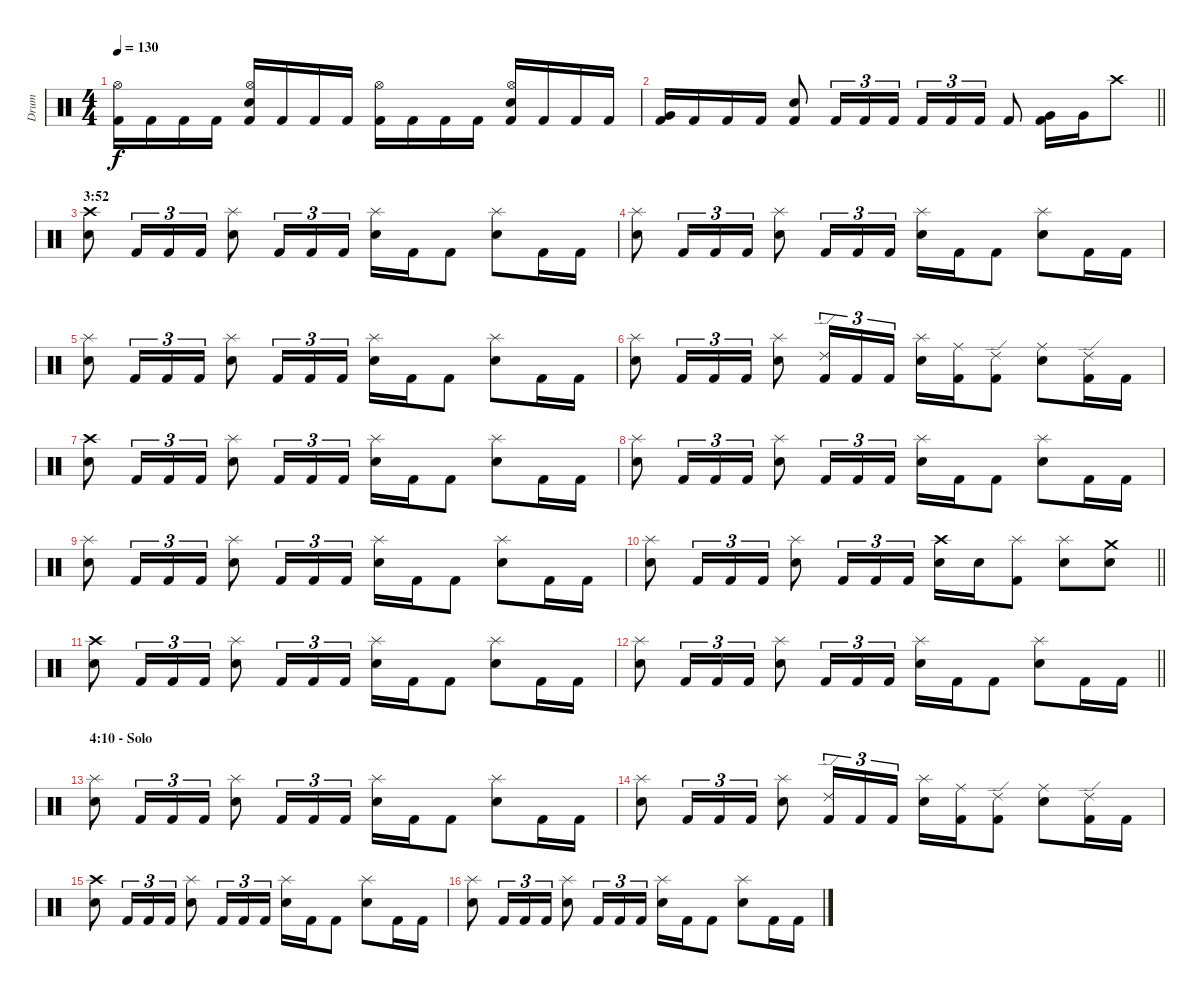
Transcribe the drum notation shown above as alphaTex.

\track ("Drum" "Drum") {instrument percussion}
\staff {score}
\articulation defaults
\ts (4 4)
\tempo 130
\clef neutral
\ks c
("Kick (hit) 2" "Hi-Hat (open)").16{dy f} "Kick (hit) 2".16 "Kick (hit) 2".16 "Kick (hit) 2".16 ("Kick (hit) 2" "Electric Snare (hit)" "Hi-Hat (open)").16 "Kick (hit) 2".16 "Kick (hit) 2".16 "Kick (hit) 2".16 ("Kick (hit) 2" "Hi-Hat (open)").16 "Kick (hit) 2".16 "Kick (hit) 2".16 "Kick (hit) 2".16 ("Kick (hit) 2" "Electric Snare (hit)" "Hi-Hat (open)").16 "Kick (hit) 2".16 "Kick (hit) 2".16 "Kick (hit) 2".16 |
\barLineRight lightlight
("Kick (hit) 2" "Very Low Tom (hit)").16 "Kick (hit) 2".16 "Kick (hit) 2".16 "Kick (hit) 2".16 ("Kick (hit) 2" "Snare (hit) 2").8 "Kick (hit) 2".16{tu (3 2)} "Kick (hit) 2".16{tu (3 2)} "Kick (hit) 2".16{tu (3 2)} "Kick (hit) 2".16{tu (3 2)} "Kick (hit) 2".16{tu (3 2)} "Kick (hit) 2".16{tu (3 2)} "Kick (hit) 2".8 ("Kick (hit) 2" "Very Low Tom (hit)").16 "Very Low Tom (hit)".16 "Crash high (hit)".8 |
\section ("" "3:52")
("Electric Snare (hit)" "Crash high (hit)").8 "Kick (hit) 2".16{tu (3 2)} "Kick (hit) 2".16{tu (3 2)} "Kick (hit) 2".16{tu (3 2)} ("Electric Snare (hit)" "Splash (hit)").8 "Kick (hit) 2".16{tu (3 2)} "Kick (hit) 2".16{tu (3 2)} "Kick (hit) 2".16{tu (3 2)} ("Electric Snare (hit)" "Splash (hit)").16 "Kick (hit) 2".16 "Kick (hit) 2".8 ("Electric Snare (hit)" "Splash (hit)").8 "Kick (hit) 2".16 "Kick (hit) 2".16 |
("Electric Snare (hit)" "Splash (hit)").8 "Kick (hit) 2".16{tu (3 2)} "Kick (hit) 2".16{tu (3 2)} "Kick (hit) 2".16{tu (3 2)} ("Electric Snare (hit)" "Splash (hit)").8 "Kick (hit) 2".16{tu (3 2)} "Kick (hit) 2".16{tu (3 2)} "Kick (hit) 2".16{tu (3 2)} ("Electric Snare (hit)" "Splash (hit)").16 "Kick (hit) 2".16 "Kick (hit) 2".8 ("Electric Snare (hit)" "Splash (hit)").8 "Kick (hit) 2".16 "Kick (hit) 2".16 |
("Electric Snare (hit)" "Splash (hit)").8 "Kick (hit) 2".16{tu (3 2)} "Kick (hit) 2".16{tu (3 2)} "Kick (hit) 2".16{tu (3 2)} ("Electric Snare (hit)" "Splash (hit)").8 "Kick (hit) 2".16{tu (3 2)} "Kick (hit) 2".16{tu (3 2)} "Kick (hit) 2".16{tu (3 2)} ("Electric Snare (hit)" "Splash (hit)").16 "Kick (hit) 2".16 "Kick (hit) 2".8 ("Electric Snare (hit)" "Splash (hit)").8 "Kick (hit) 2".16 "Kick (hit) 2".16 |
("Electric Snare (hit)" "Splash (hit)").8 "Kick (hit) 2".16{tu (3 2)} "Kick (hit) 2".16{tu (3 2)} "Kick (hit) 2".16{tu (3 2)} ("Electric Snare (hit)" "Splash (hit)").8 ("Kick (hit) 2" "Ride (edge) 2").16{tu (3 2)} "Kick (hit) 2".16{tu (3 2)} "Kick (hit) 2".16{tu (3 2)} ("Electric Snare (hit)" "Splash (hit)").16 ("Kick (hit) 2" "Ride (middle)").16 ("Kick (hit) 2" "Ride (edge) 2").8 ("Electric Snare (hit)" "Ride (middle)").8 ("Kick (hit) 2" "Ride (edge) 2").16 "Kick (hit) 2".16 |
("Electric Snare (hit)" "Crash high (hit)").8 "Kick (hit) 2".16{tu (3 2)} "Kick (hit) 2".16{tu (3 2)} "Kick (hit) 2".16{tu (3 2)} ("Electric Snare (hit)" "Splash (hit)").8 "Kick (hit) 2".16{tu (3 2)} "Kick (hit) 2".16{tu (3 2)} "Kick (hit) 2".16{tu (3 2)} ("Electric Snare (hit)" "Splash (hit)").16 "Kick (hit) 2".16 "Kick (hit) 2".8 ("Electric Snare (hit)" "Splash (hit)").8 "Kick (hit) 2".16 "Kick (hit) 2".16 |
("Electric Snare (hit)" "Splash (hit)").8 "Kick (hit) 2".16{tu (3 2)} "Kick (hit) 2".16{tu (3 2)} "Kick (hit) 2".16{tu (3 2)} ("Electric Snare (hit)" "Splash (hit)").8 "Kick (hit) 2".16{tu (3 2)} "Kick (hit) 2".16{tu (3 2)} "Kick (hit) 2".16{tu (3 2)} ("Electric Snare (hit)" "Splash (hit)").16 "Kick (hit) 2".16 "Kick (hit) 2".8 ("Electric Snare (hit)" "Splash (hit)").8 "Kick (hit) 2".16 "Kick (hit) 2".16 |
("Electric Snare (hit)" "Splash (hit)").8 "Kick (hit) 2".16{tu (3 2)} "Kick (hit) 2".16{tu (3 2)} "Kick (hit) 2".16{tu (3 2)} ("Electric Snare (hit)" "Splash (hit)").8 "Kick (hit) 2".16{tu (3 2)} "Kick (hit) 2".16{tu (3 2)} "Kick (hit) 2".16{tu (3 2)} ("Electric Snare (hit)" "Splash (hit)").16 "Kick (hit) 2".16 "Kick (hit) 2".8 ("Electric Snare (hit)" "Splash (hit)").8 "Kick (hit) 2".16 "Kick (hit) 2".16 |
\barLineRight lightlight
("Electric Snare (hit)" "Splash (hit)").8 "Kick (hit) 2".16{tu (3 2)} "Kick (hit) 2".16{tu (3 2)} "Kick (hit) 2".16{tu (3 2)} ("Electric Snare (hit)" "Splash (hit)").8 "Kick (hit) 2".16{tu (3 2)} "Kick (hit) 2".16{tu (3 2)} "Kick (hit) 2".16{tu (3 2)} ("Electric Snare (hit)" "Crash high (hit)").16 "Electric Snare (hit)".16 ("Kick (hit) 2" "Splash (hit)").8 ("Electric Snare (hit)" "Splash (hit)").8 ("Electric Snare (hit)" "Crash medium (hit)").8 |
("Electric Snare (hit)" "Crash high (hit)").8 "Kick (hit) 2".16{tu (3 2)} "Kick (hit) 2".16{tu (3 2)} "Kick (hit) 2".16{tu (3 2)} ("Electric Snare (hit)" "Splash (hit)").8 "Kick (hit) 2".16{tu (3 2)} "Kick (hit) 2".16{tu (3 2)} "Kick (hit) 2".16{tu (3 2)} ("Electric Snare (hit)" "Splash (hit)").16 "Kick (hit) 2".16 "Kick (hit) 2".8 ("Electric Snare (hit)" "Splash (hit)").8 "Kick (hit) 2".16 "Kick (hit) 2".16 |
\barLineRight lightlight
("Electric Snare (hit)" "Splash (hit)").8 "Kick (hit) 2".16{tu (3 2)} "Kick (hit) 2".16{tu (3 2)} "Kick (hit) 2".16{tu (3 2)} ("Electric Snare (hit)" "Splash (hit)").8 "Kick (hit) 2".16{tu (3 2)} "Kick (hit) 2".16{tu (3 2)} "Kick (hit) 2".16{tu (3 2)} ("Electric Snare (hit)" "Splash (hit)").16 "Kick (hit) 2".16 "Kick (hit) 2".8 ("Electric Snare (hit)" "Splash (hit)").8 "Kick (hit) 2".16 "Kick (hit) 2".16 |
\section ("" "4:10 - Solo")
("Electric Snare (hit)" "Splash (hit)").8 "Kick (hit) 2".16{tu (3 2)} "Kick (hit) 2".16{tu (3 2)} "Kick (hit) 2".16{tu (3 2)} ("Electric Snare (hit)" "Splash (hit)").8 "Kick (hit) 2".16{tu (3 2)} "Kick (hit) 2".16{tu (3 2)} "Kick (hit) 2".16{tu (3 2)} ("Electric Snare (hit)" "Splash (hit)").16 "Kick (hit) 2".16 "Kick (hit) 2".8 ("Electric Snare (hit)" "Splash (hit)").8 "Kick (hit) 2".16 "Kick (hit) 2".16 |
("Electric Snare (hit)" "Splash (hit)").8 "Kick (hit) 2".16{tu (3 2)} "Kick (hit) 2".16{tu (3 2)} "Kick (hit) 2".16{tu (3 2)} ("Electric Snare (hit)" "Splash (hit)").8 ("Kick (hit) 2" "Ride (edge) 2").16{tu (3 2)} "Kick (hit) 2".16{tu (3 2)} "Kick (hit) 2".16{tu (3 2)} ("Electric Snare (hit)" "Splash (hit)").16 ("Kick (hit) 2" "Ride (middle)").16 ("Kick (hit) 2" "Ride (edge) 2").8 ("Electric Snare (hit)" "Ride (middle)").8 ("Kick (hit) 2" "Ride (edge) 2").16 "Kick (hit) 2".16 |
("Electric Snare (hit)" "Crash high (hit)").8 "Kick (hit) 2".16{tu (3 2)} "Kick (hit) 2".16{tu (3 2)} "Kick (hit) 2".16{tu (3 2)} ("Electric Snare (hit)" "Splash (hit)").8 "Kick (hit) 2".16{tu (3 2)} "Kick (hit) 2".16{tu (3 2)} "Kick (hit) 2".16{tu (3 2)} ("Electric Snare (hit)" "Splash (hit)").16 "Kick (hit) 2".16 "Kick (hit) 2".8 ("Electric Snare (hit)" "Splash (hit)").8 "Kick (hit) 2".16 "Kick (hit) 2".16 |
("Electric Snare (hit)" "Splash (hit)").8 "Kick (hit) 2".16{tu (3 2)} "Kick (hit) 2".16{tu (3 2)} "Kick (hit) 2".16{tu (3 2)} ("Electric Snare (hit)" "Splash (hit)").8 "Kick (hit) 2".16{tu (3 2)} "Kick (hit) 2".16{tu (3 2)} "Kick (hit) 2".16{tu (3 2)} ("Electric Snare (hit)" "Splash (hit)").16 "Kick (hit) 2".16 "Kick (hit) 2".8 ("Electric Snare (hit)" "Splash (hit)").8 "Kick (hit) 2".16 "Kick (hit) 2".16
